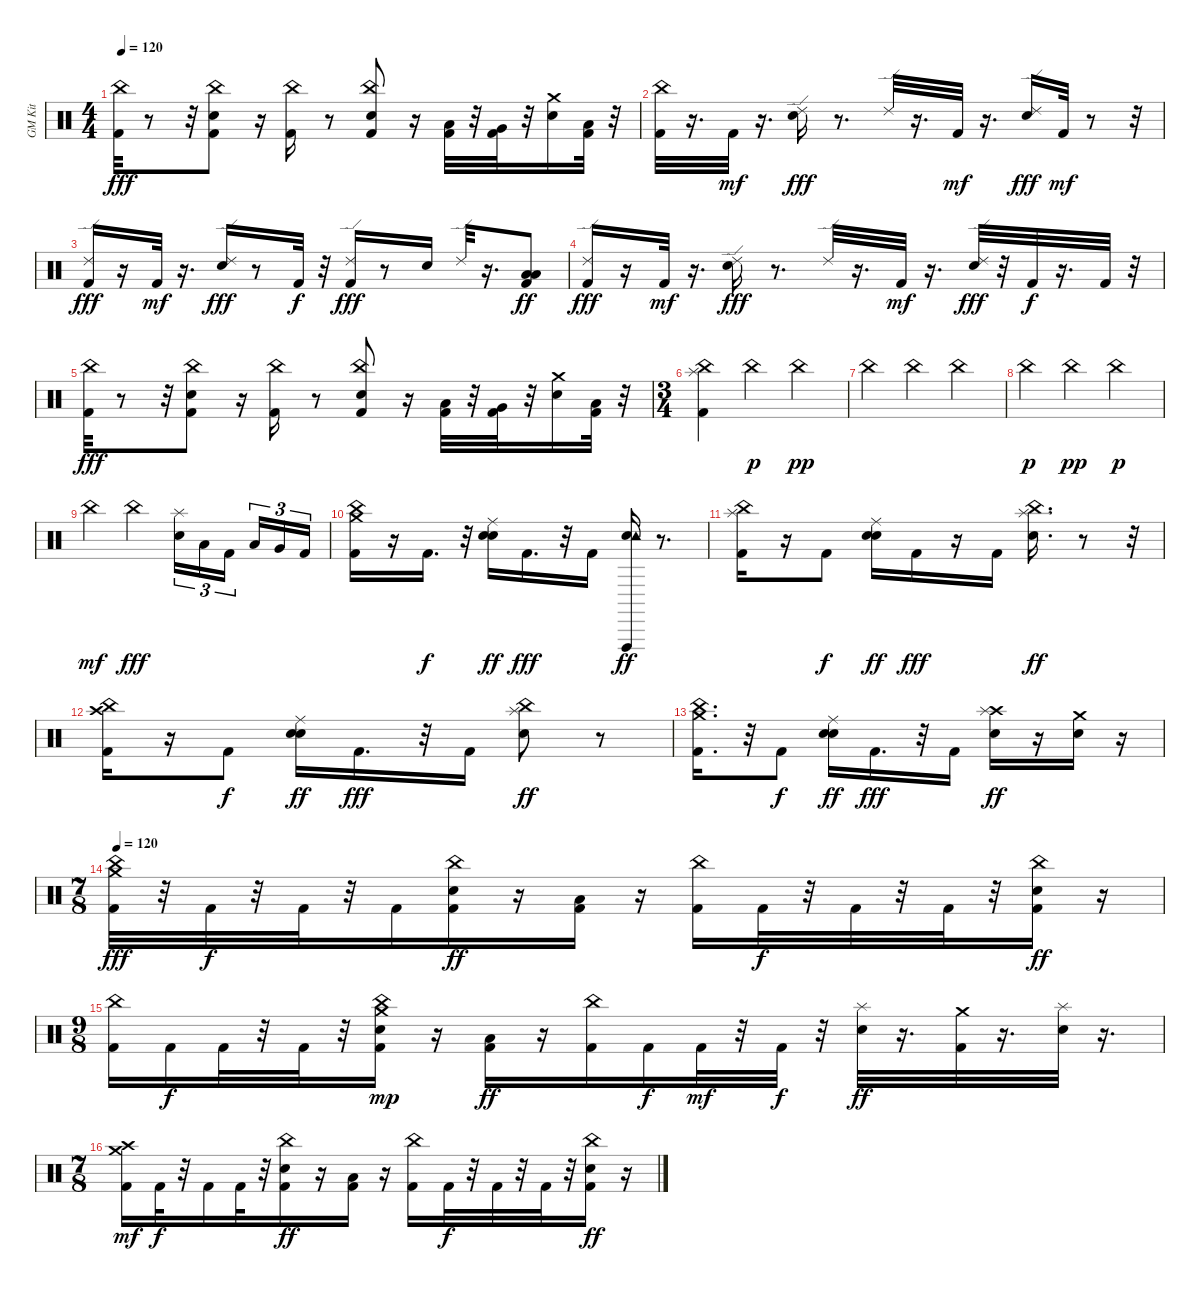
\track ("GM Kit" "GM Kit") {instrument percussion}
\staff {score}
\articulation defaults
\ts (4 4)
\tempo 120
\clef neutral
\ks c
("Kick (hit) 2" "China (hit)").32{dy fff} r.8 r.32 ("Kick (hit) 2" "Snare (hit) 2" "China (hit)").8 r.16 ("Kick (hit) 2" "China (hit)").16 r.8 ("Kick (hit) 2" "Snare (hit) 2" "China (hit)").8 r.16 ("Kick (hit) 2" "Low Tom (hit)").32 r.32 ("Kick (hit) 2" "Very Low Tom (hit)").32 r.32 ("Snare (hit) 2" "Crash medium (hit)").16 ("Kick (hit) 2" "Low Floor Tom (hit)").32 r.32 |
("Kick (hit) 2" "China (hit)").32 r.16{d} "Kick (hit) 2".32{dy mf} r.16{d} ("Snare (hit) 2" "Ride (edge) 2").16{dy fff} r.8{d} "Ride (edge) 2".32 r.16{d} "Kick (hit) 2".32{dy mf} r.16{d} ("Snare (hit) 2" "Ride (edge) 2").16{dy fff} "Kick (hit) 2".32{dy mf} r.8 r.32 |
("Kick (hit) 2" "Ride (edge) 2").16{dy fff} r.16 "Kick (hit) 2".32{dy mf} r.16{d} ("Snare (hit) 2" "Ride (edge) 2").16{dy fff} r.8 "Kick (hit) 2".32{dy f} r.32 ("Kick (hit) 2" "Ride (edge) 2").16{dy fff} r.8 "Snare (hit) 2".16 "Ride (edge) 2".32 r.16{d} ("Kick (hit) 2" "Low Floor Tom (hit)" "Low Floor Tom (hit)").8{dy ff} |
("Kick (hit) 2" "Ride (edge) 2").16{dy fff} r.16 "Kick (hit) 2".32{dy mf} r.16{d} ("Snare (hit) 2" "Ride (edge) 2").16{dy fff} r.8{d} "Ride (edge) 2".32 r.16{d} "Kick (hit) 2".32{dy mf} r.16{d} ("Snare (hit) 2" "Ride (edge) 2").32{dy fff} r.32 "Kick (hit) 2".32{dy f} r.16{d} "Kick (hit) 2".32 r.32 |
("Kick (hit) 2" "China (hit)").32{dy fff} r.8 r.32 ("Kick (hit) 2" "Snare (hit) 2" "China (hit)").8 r.16 ("Kick (hit) 2" "China (hit)").16 r.8 ("Kick (hit) 2" "Snare (hit) 2" "China (hit)").8 r.16 ("Kick (hit) 2" "Low Tom (hit)").32 r.32 ("Kick (hit) 2" "Very Low Tom (hit)").32 r.32 ("Snare (hit) 2" "Crash medium (hit)").16 ("Kick (hit) 2" "Low Floor Tom (hit)").32 r.32 |
\ts (3 4)
("Kick (hit) 2" "China (hit)" "Splash (hit)").4 "China (hit)".4{dy p} "China (hit)".4{dy pp} |
"China (hit)".4 "China (hit)".4 "China (hit)".4 |
"China (hit)".4{dy p} "China (hit)".4{dy pp} "China (hit)".4{dy p} |
"China (hit)".4{dy mf} "China (hit)".4{dy fff} ("Snare (hit) 2" "Splash (hit)").16{tu (3 2)} "Low Tom (hit)".16{tu (3 2)} "Kick (hit) 2".16{tu (3 2) beam splitsecondary} "Low Tom (hit)".16{tu (3 2)} "Very Low Tom (hit)".16{tu (3 2)} "Kick (hit) 2".16{tu (3 2)} |
("Kick (hit) 2" "China (hit)" "Crash medium (hit)").16 r.16 "Kick (hit) 2".16{d dy f} r.32 ("Snare (hit) 2" "Ride (middle)" "Snare (hit) 2").16{dy ff} "Kick (hit) 2".16{d dy fff} r.32 "Kick (hit) 2".16 ("Snare (hit) 2" "Tambourine (hit)" "Vibraslap (hit)").16{dy ff} r.8{d} |
("Kick (hit) 2" "China (hit)" "Splash (hit)").16 r.16 "Kick (hit) 2".8{dy f} ("Snare (hit) 2" "Ride (middle)" "Snare (hit) 2").16{dy ff} "Kick (hit) 2".16{dy fff} r.16 "Kick (hit) 2".16 ("Snare (hit) 2" "China (hit)" "Splash (hit)").16{d dy ff} r.8 r.32 |
("Kick (hit) 2" "Crash high (hit)" "China (hit)").16 r.16 "Kick (hit) 2".8{dy f} ("Snare (hit) 2" "Ride (middle)" "Snare (hit) 2").16{dy ff} "Kick (hit) 2".16{d dy fff} r.32 "Kick (hit) 2".16 ("Snare (hit) 2" "China (hit)" "Splash (hit)").8{dy ff} r.8 |
("Kick (hit) 2" "China (hit)" "Crash medium (hit)").16{d} r.32 "Kick (hit) 2".8{dy f} ("Snare (hit) 2" "Ride (middle)" "Snare (hit) 2").16{dy ff} "Kick (hit) 2".16{d dy fff} r.32 "Kick (hit) 2".16 ("Snare (hit) 2" "Crash high (hit)" "Splash (hit)").16{dy ff} r.16 ("Snare (hit) 2" "Crash medium (hit)").16 r.16 |
\ts (7 8)
\tempo 120
("Kick (hit) 2" "China (hit)" "Crash medium (hit)").32{dy fff} r.32 "Kick (hit) 2".32{dy f} r.32 "Kick (hit) 2".32 r.32 "Kick (hit) 2".16 ("Kick (hit) 2" "Snare (hit) 2" "China (hit)").16{dy ff} r.16 ("Kick (hit) 2" "Low Floor Tom (hit)").16 r.16 ("Kick (hit) 2" "China (hit)").16 "Kick (hit) 2".32{dy f} r.32 "Kick (hit) 2".32 r.32 "Kick (hit) 2".32 r.32 ("Kick (hit) 2" "Snare (hit) 2" "China (hit)").16{dy ff} r.16 |
\ts (9 8)
("Kick (hit) 2" "China (hit)").16 "Kick (hit) 2".16{dy f} "Kick (hit) 2".32 r.32 "Kick (hit) 2".32 r.32 ("Kick (hit) 2" "Snare (hit) 2" "China (hit)" "Crash medium (hit)").16{dy mp} r.16 ("Kick (hit) 2" "Low Floor Tom (hit)").16{dy ff} r.16 ("Kick (hit) 2" "China (hit)").16 "Kick (hit) 2".16{dy f} "Kick (hit) 2".32{dy mf} r.32 "Kick (hit) 2".32{dy f} r.32 ("Snare (hit) 2" "Splash (hit)").32{dy ff} r.16{d} ("Kick (hit) 2" "Crash medium (hit)").32 r.16{d} ("Snare (hit) 2" "Splash (hit)").32 r.16{d} |
\ts (7 8)
("Kick (hit) 2" "Crash high (hit)" "Crash medium (hit)").16{dy mf} "Kick (hit) 2".32{dy f} r.32 "Kick (hit) 2".16 "Kick (hit) 2".32 r.32 ("Kick (hit) 2" "Snare (hit) 2" "China (hit)").16{dy ff} r.16 ("Kick (hit) 2" "Low Floor Tom (hit)").16 r.16 ("Kick (hit) 2" "China (hit)").16 "Kick (hit) 2".32{dy f} r.32 "Kick (hit) 2".32 r.32 "Kick (hit) 2".32 r.32 ("Kick (hit) 2" "Snare (hit) 2" "China (hit)").16{dy ff} r.16
